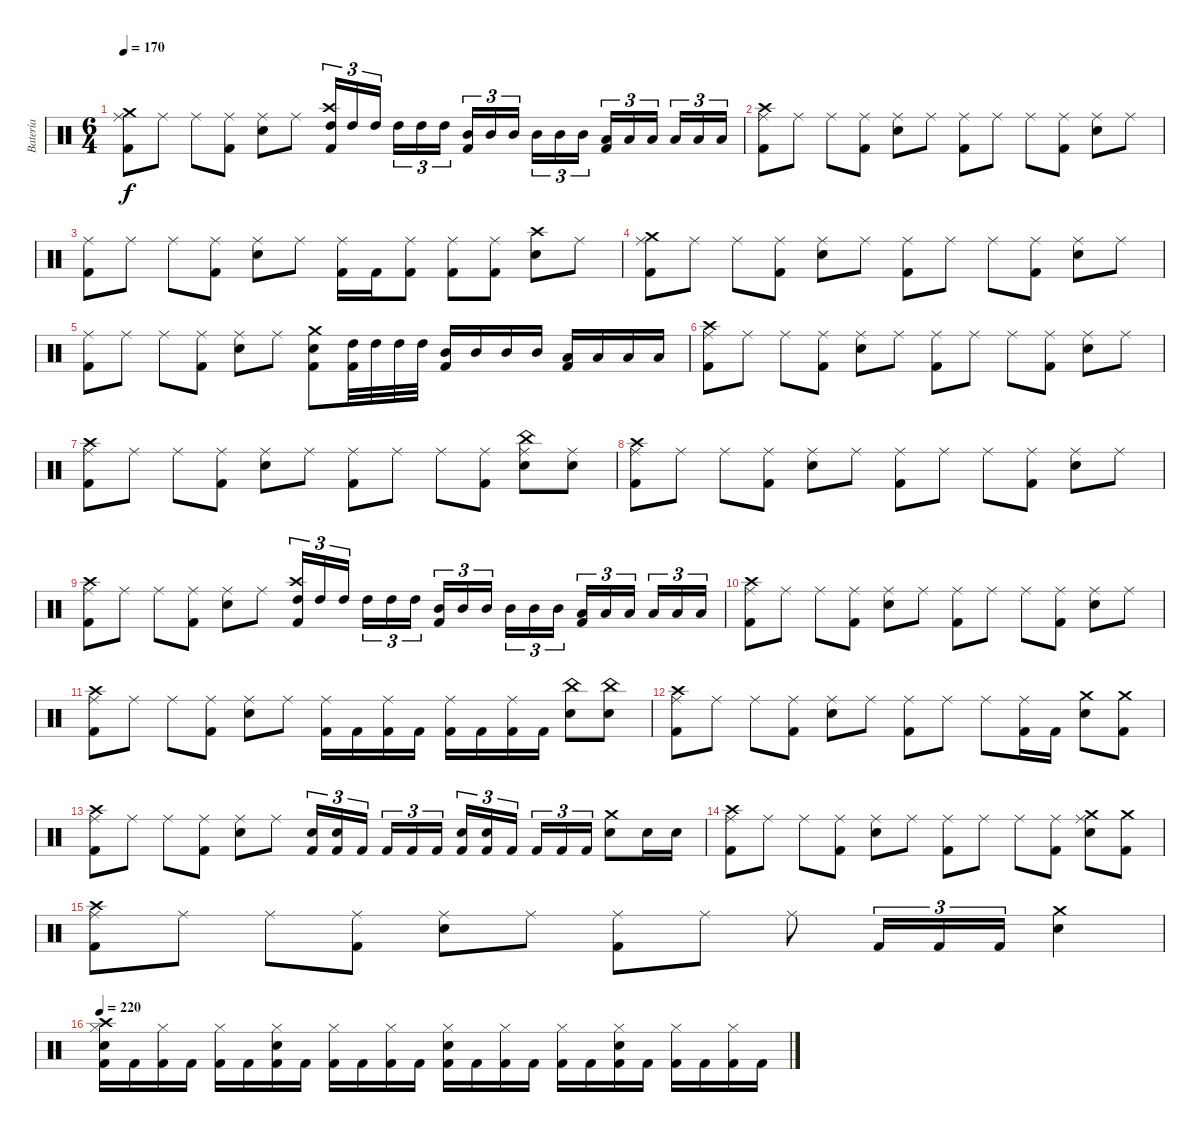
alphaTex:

\track ("Batería" "Batería") {instrument percussion}
\staff {score}
\articulation defaults
\ts (6 4)
\tempo 170
\clef neutral
\ks c
("Crash medium (hit)" "Kick (hit) 2" "Ride (middle)").8{dy f} "Ride (middle)".8 "Ride (middle)".8 ("Kick (hit) 2" "Ride (middle)").8 ("Electric Snare (hit)" "Ride (middle)").8 "Ride (middle)".8 ("Crash high (hit)" "Kick (hit) 2" "High Tom (hit)").16{tu (3 2)} "High Tom (hit)".16{tu (3 2)} "High Tom (hit)".16{tu (3 2)} "High Tom (hit)".16{tu (3 2)} "High Tom (hit)".16{tu (3 2)} "High Tom (hit)".16{tu (3 2)} ("Kick (hit) 2" "Mid Tom (hit)").16{tu (3 2)} "Mid Tom (hit)".16{tu (3 2)} "Mid Tom (hit)".16{tu (3 2)} "Mid Tom (hit)".16{tu (3 2)} "Mid Tom (hit)".16{tu (3 2)} "Mid Tom (hit)".16{tu (3 2)} ("Kick (hit) 2" "Low Tom (hit)").16{tu (3 2)} "Low Tom (hit)".16{tu (3 2)} "Low Tom (hit)".16{tu (3 2)} "Low Tom (hit)".16{tu (3 2)} "Low Tom (hit)".16{tu (3 2)} "Low Tom (hit)".16{tu (3 2)} |
("Crash high (hit)" "Kick (hit) 2" "Ride (middle)").8 "Ride (middle)".8 "Ride (middle)".8 ("Kick (hit) 2" "Ride (middle)").8 ("Electric Snare (hit)" "Ride (middle)").8 "Ride (middle)".8 ("Kick (hit) 2" "Ride (middle)").8 "Ride (middle)".8 "Ride (middle)".8 ("Kick (hit) 2" "Ride (middle)").8 ("Electric Snare (hit)" "Ride (middle)").8 "Ride (middle)".8 |
("Kick (hit) 2" "Ride (middle)").8 "Ride (middle)".8 "Ride (middle)".8 ("Kick (hit) 2" "Ride (middle)").8 ("Electric Snare (hit)" "Ride (middle)").8 "Ride (middle)".8 ("Kick (hit) 2" "Ride (middle)").16 "Kick (hit) 2".16 ("Kick (hit) 2" "Ride (middle)").8 ("Kick (hit) 2" "Ride (middle)").8 ("Kick (hit) 2" "Ride (middle)").8 ("Crash high (hit)" "Electric Snare (hit)").8 "Ride (middle)".8 |
("Crash medium (hit)" "Kick (hit) 2" "Ride (middle)").8 "Ride (middle)".8 "Ride (middle)".8 ("Kick (hit) 2" "Ride (middle)").8 ("Electric Snare (hit)" "Ride (middle)").8 "Ride (middle)".8 ("Kick (hit) 2" "Ride (middle)").8 "Ride (middle)".8 "Ride (middle)".8 ("Kick (hit) 2" "Ride (middle)").8 ("Electric Snare (hit)" "Ride (middle)").8 "Ride (middle)".8 |
("Kick (hit) 2" "Ride (middle)").8 "Ride (middle)".8 "Ride (middle)".8 ("Kick (hit) 2" "Ride (middle)").8 ("Electric Snare (hit)" "Ride (middle)").8 "Ride (middle)".8 ("Crash medium (hit)" "Kick (hit) 2" "Electric Snare (hit)").8 ("Kick (hit) 2" "High Tom (hit)").32 "High Tom (hit)".32 "High Tom (hit)".32 "High Tom (hit)".32 ("Kick (hit) 2" "Mid Tom (hit)").16 "Mid Tom (hit)".16 "Mid Tom (hit)".16 "Mid Tom (hit)".16 ("Kick (hit) 2" "Low Tom (hit)").16 "Low Tom (hit)".16 "Low Tom (hit)".16 "Low Tom (hit)".16 |
("Crash high (hit)" "Kick (hit) 2" "Ride (middle)").8 "Ride (middle)".8 "Ride (middle)".8 ("Kick (hit) 2" "Ride (middle)").8 ("Electric Snare (hit)" "Ride (middle)").8 "Ride (middle)".8 ("Kick (hit) 2" "Ride (middle)").8 "Ride (middle)".8 "Ride (middle)".8 ("Kick (hit) 2" "Ride (middle)").8 ("Electric Snare (hit)" "Ride (middle)").8 "Ride (middle)".8 |
("Crash high (hit)" "Kick (hit) 2" "Ride (middle)").8 "Ride (middle)".8 "Ride (middle)".8 ("Kick (hit) 2" "Ride (middle)").8 ("Electric Snare (hit)" "Ride (middle)").8 "Ride (middle)".8 ("Kick (hit) 2" "Ride (middle)").8 "Ride (middle)".8 "Ride (middle)".8 ("Kick (hit) 2" "Ride (middle)").8 ("China (hit)" "Electric Snare (hit)" "Ride (middle)").8 ("Electric Snare (hit)" "Ride (middle)").8 |
("Crash high (hit)" "Kick (hit) 2" "Ride (middle)").8 "Ride (middle)".8 "Ride (middle)".8 ("Kick (hit) 2" "Ride (middle)").8 ("Electric Snare (hit)" "Ride (middle)").8 "Ride (middle)".8 ("Kick (hit) 2" "Ride (middle)").8 "Ride (middle)".8 "Ride (middle)".8 ("Kick (hit) 2" "Ride (middle)").8 ("Electric Snare (hit)" "Ride (middle)").8 "Ride (middle)".8 |
("Crash high (hit)" "Kick (hit) 2" "Ride (middle)").8 "Ride (middle)".8 "Ride (middle)".8 ("Kick (hit) 2" "Ride (middle)").8 ("Electric Snare (hit)" "Ride (middle)").8 "Ride (middle)".8 ("Crash high (hit)" "Kick (hit) 2" "High Tom (hit)").16{tu (3 2)} "High Tom (hit)".16{tu (3 2)} "High Tom (hit)".16{tu (3 2)} "High Tom (hit)".16{tu (3 2)} "High Tom (hit)".16{tu (3 2)} "High Tom (hit)".16{tu (3 2)} ("Kick (hit) 2" "Mid Tom (hit)").16{tu (3 2)} "Mid Tom (hit)".16{tu (3 2)} "Mid Tom (hit)".16{tu (3 2)} "Mid Tom (hit)".16{tu (3 2)} "Mid Tom (hit)".16{tu (3 2)} "Mid Tom (hit)".16{tu (3 2)} ("Kick (hit) 2" "Low Tom (hit)").16{tu (3 2)} "Low Tom (hit)".16{tu (3 2)} "Low Tom (hit)".16{tu (3 2)} "Low Tom (hit)".16{tu (3 2)} "Low Tom (hit)".16{tu (3 2)} "Low Tom (hit)".16{tu (3 2)} |
("Crash high (hit)" "Kick (hit) 2" "Ride (middle)").8 "Ride (middle)".8 "Ride (middle)".8 ("Kick (hit) 2" "Ride (middle)").8 ("Electric Snare (hit)" "Ride (middle)").8 "Ride (middle)".8 ("Kick (hit) 2" "Ride (middle)").8 "Ride (middle)".8 "Ride (middle)".8 ("Kick (hit) 2" "Ride (middle)").8 ("Electric Snare (hit)" "Ride (middle)").8 "Ride (middle)".8 |
("Crash high (hit)" "Kick (hit) 2" "Ride (middle)").8 "Ride (middle)".8 "Ride (middle)".8 ("Kick (hit) 2" "Ride (middle)").8 ("Electric Snare (hit)" "Ride (middle)").8 "Ride (middle)".8 ("Ride (middle)" "Kick (hit) 2").16 "Kick (hit) 2".16 ("Ride (middle)" "Kick (hit) 2").16 "Kick (hit) 2".16 ("Ride (middle)" "Kick (hit) 2").16 "Kick (hit) 2".16 ("Ride (middle)" "Kick (hit) 2").16 "Kick (hit) 2".16 ("China (hit)" "Electric Snare (hit)").8 ("China (hit)" "Electric Snare (hit)").8 |
("Crash high (hit)" "Kick (hit) 2" "Ride (middle)").8 "Ride (middle)".8 "Ride (middle)".8 ("Kick (hit) 2" "Ride (middle)").8 ("Electric Snare (hit)" "Ride (middle)").8 "Ride (middle)".8 ("Kick (hit) 2" "Ride (middle)").8 "Ride (middle)".8 "Ride (middle)".8 ("Kick (hit) 2" "Ride (middle)").16 "Kick (hit) 2".16 ("Crash medium (hit)" "Electric Snare (hit)").8 ("Crash medium (hit)" "Kick (hit) 2").8 |
("Crash high (hit)" "Kick (hit) 2" "Ride (middle)").8 "Ride (middle)".8 "Ride (middle)".8 ("Kick (hit) 2" "Ride (middle)").8 ("Electric Snare (hit)" "Ride (middle)").8 "Ride (middle)".8 ("Electric Snare (hit)" "Kick (hit) 2").16{tu (3 2)} ("Electric Snare (hit)" "Kick (hit) 2").16{tu (3 2)} "Kick (hit) 2".16{tu (3 2)} "Kick (hit) 2".16{tu (3 2)} "Kick (hit) 2".16{tu (3 2)} "Kick (hit) 2".16{tu (3 2)} ("Electric Snare (hit)" "Kick (hit) 2").16{tu (3 2)} ("Electric Snare (hit)" "Kick (hit) 2").16{tu (3 2)} "Kick (hit) 2".16{tu (3 2)} "Kick (hit) 2".16{tu (3 2)} "Kick (hit) 2".16{tu (3 2)} "Kick (hit) 2".16{tu (3 2)} ("Crash medium (hit)" "Electric Snare (hit)").8 "Electric Snare (hit)".16 "Electric Snare (hit)".16 |
("Crash high (hit)" "Kick (hit) 2" "Ride (middle)").8 "Ride (middle)".8 "Ride (middle)".8 ("Kick (hit) 2" "Ride (middle)").8 ("Electric Snare (hit)" "Ride (middle)").8 "Ride (middle)".8 ("Kick (hit) 2" "Ride (middle)").8 "Ride (middle)".8 "Ride (middle)".8 ("Kick (hit) 2" "Ride (middle)").8 ("Crash medium (hit)" "Electric Snare (hit)" "Ride (middle)").8 ("Crash medium (hit)" "Kick (hit) 2").8 |
("Crash high (hit)" "Kick (hit) 2" "Ride (middle)").8 "Ride (middle)".8 "Ride (middle)".8 ("Kick (hit) 2" "Ride (middle)").8 ("Electric Snare (hit)" "Ride (middle)").8 "Ride (middle)".8 ("Kick (hit) 2" "Ride (middle)").8 "Ride (middle)".8 "Ride (middle)".8 "Kick (hit) 2".16{tu (3 2)} "Kick (hit) 2".16{tu (3 2)} "Kick (hit) 2".16{tu (3 2)} ("Crash medium (hit)" "Electric Snare (hit)").4 |
\tempo 220
("Crash high (hit)" "Electric Snare (hit)" "Hi-Hat (closed)" "Kick (hit) 2").16 "Kick (hit) 2".16 ("Hi-Hat (closed)" "Kick (hit) 2").16 "Kick (hit) 2".16 ("Hi-Hat (closed)" "Kick (hit) 2").16 "Kick (hit) 2".16 ("Electric Snare (hit)" "Hi-Hat (closed)" "Kick (hit) 2").16 "Kick (hit) 2".16 ("Hi-Hat (closed)" "Kick (hit) 2").16 "Kick (hit) 2".16 ("Hi-Hat (closed)" "Kick (hit) 2").16 "Kick (hit) 2".16 ("Electric Snare (hit)" "Hi-Hat (closed)" "Kick (hit) 2").16 "Kick (hit) 2".16 ("Hi-Hat (closed)" "Kick (hit) 2").16 "Kick (hit) 2".16 ("Hi-Hat (closed)" "Kick (hit) 2").16 "Kick (hit) 2".16 ("Electric Snare (hit)" "Hi-Hat (closed)" "Kick (hit) 2").16 "Kick (hit) 2".16 ("Hi-Hat (closed)" "Kick (hit) 2").16 "Kick (hit) 2".16 ("Hi-Hat (closed)" "Kick (hit) 2").16 "Kick (hit) 2".16
